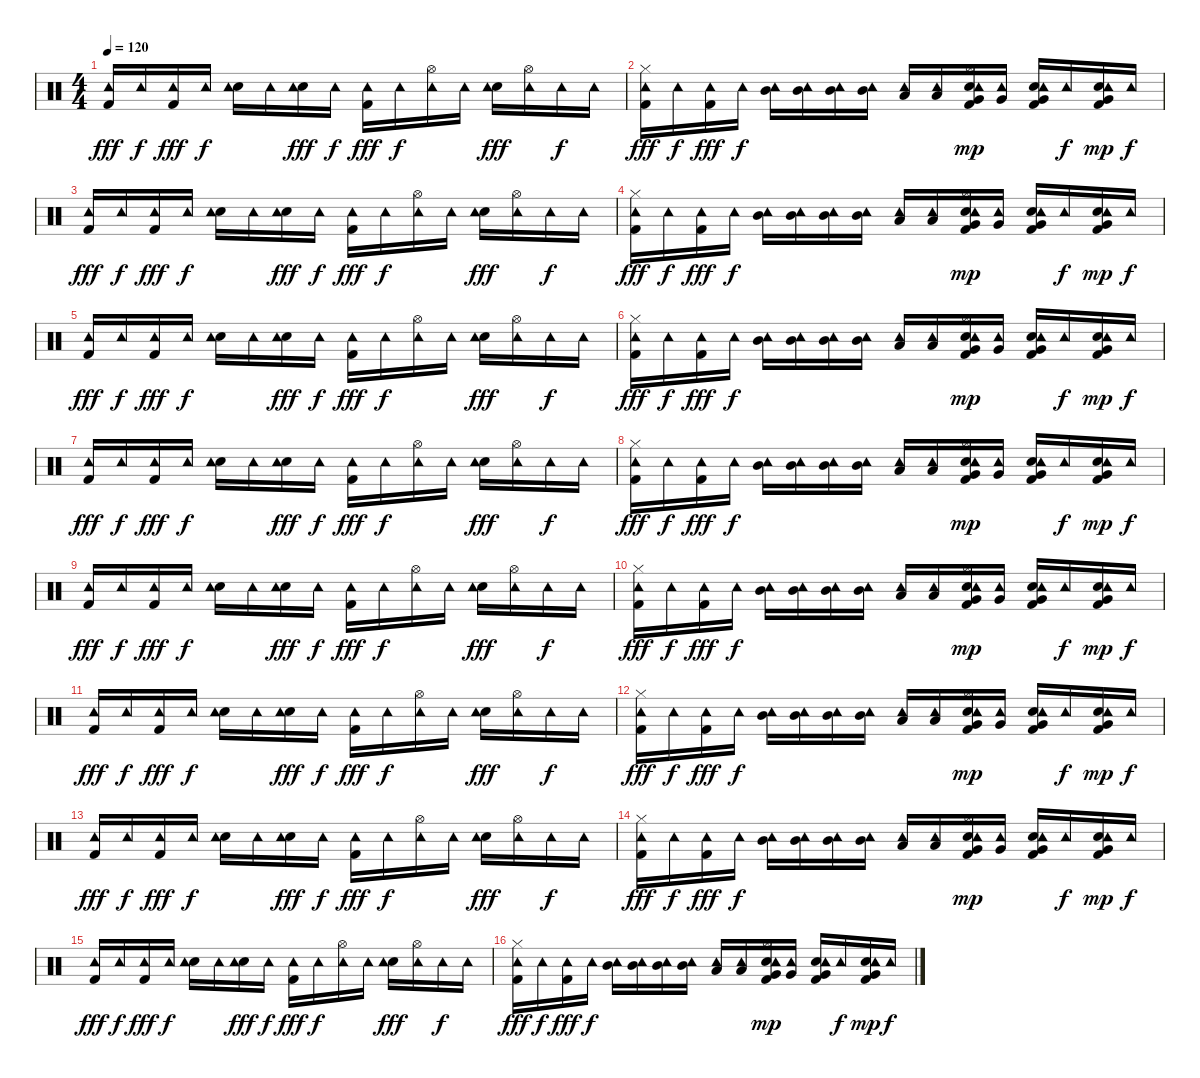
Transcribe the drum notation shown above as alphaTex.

\track "" {instrument percussion}
\staff {score}
\articulation defaults
\ts (4 4)
\tempo 120
\clef neutral
\ks c
("Tambourine (hit)" "Kick (hit) 2").16{dy fff} "Tambourine (hit)".16{dy f} ("Tambourine (hit)" "Kick (hit) 2").16{dy fff} "Tambourine (hit)".16{dy f} ("Hand Clap (hit)" "Tambourine (hit)").16 "Tambourine (hit)".16 ("Hand Clap (hit)" "Tambourine (hit)").16{dy fff} "Tambourine (hit)".16{dy f} ("Tambourine (hit)" "Kick (hit) 2").16{dy fff} "Tambourine (hit)".16{dy f} ("Hi-Hat (open)" "Tambourine (hit)").16 "Tambourine (hit)".16 ("Snare (hit) 2" "Tambourine (hit)").16{dy fff} ("Hi-Hat (open)" "Tambourine (hit)").16 "Tambourine (hit)".16{dy f} "Tambourine (hit)".16 |
("Hi-Hat (closed)" "Tambourine (hit)" "Kick (hit) 2").16{dy fff} "Tambourine (hit)".16{dy f} ("Tambourine (hit)" "Kick (hit) 2").16{dy fff} "Tambourine (hit)".16{dy f} ("Mid Tom (hit)" "Tambourine (hit)").16 ("Mid Tom (hit)" "Tambourine (hit)").16 ("Mid Tom (hit)" "Tambourine (hit)").16 ("Mid Tom (hit)" "Tambourine (hit)").16 ("Low Tom (hit)" "Tambourine (hit)").16 ("Low Tom (hit)" "Tambourine (hit)").16 ("Hi-Hat (open)" "Hand Clap (hit)" "Kick (hit) 2" "Very Low Tom (hit)" "Tambourine (hit)").16{dy mp} ("Very Low Tom (hit)" "Tambourine (hit)").16 ("Kick (hit) 2" "Very Low Tom (hit)" "Hand Clap (hit)" "Tambourine (hit)").16 "Tambourine (hit)".16{dy f} ("Kick (hit) 2" "Very Low Tom (hit)" "Hand Clap (hit)" "Tambourine (hit)").16{dy mp} "Tambourine (hit)".16{dy f} |
("Tambourine (hit)" "Kick (hit) 2").16{dy fff} "Tambourine (hit)".16{dy f} ("Tambourine (hit)" "Kick (hit) 2").16{dy fff} "Tambourine (hit)".16{dy f} ("Hand Clap (hit)" "Tambourine (hit)").16 "Tambourine (hit)".16 ("Hand Clap (hit)" "Tambourine (hit)").16{dy fff} "Tambourine (hit)".16{dy f} ("Tambourine (hit)" "Kick (hit) 2").16{dy fff} "Tambourine (hit)".16{dy f} ("Hi-Hat (open)" "Tambourine (hit)").16 "Tambourine (hit)".16 ("Snare (hit) 2" "Tambourine (hit)").16{dy fff} ("Hi-Hat (open)" "Tambourine (hit)").16 "Tambourine (hit)".16{dy f} "Tambourine (hit)".16 |
("Hi-Hat (closed)" "Tambourine (hit)" "Kick (hit) 2").16{dy fff} "Tambourine (hit)".16{dy f} ("Tambourine (hit)" "Kick (hit) 2").16{dy fff} "Tambourine (hit)".16{dy f} ("Mid Tom (hit)" "Tambourine (hit)").16 ("Mid Tom (hit)" "Tambourine (hit)").16 ("Mid Tom (hit)" "Tambourine (hit)").16 ("Mid Tom (hit)" "Tambourine (hit)").16 ("Low Tom (hit)" "Tambourine (hit)").16 ("Low Tom (hit)" "Tambourine (hit)").16 ("Hi-Hat (open)" "Hand Clap (hit)" "Kick (hit) 2" "Very Low Tom (hit)" "Tambourine (hit)").16{dy mp} ("Very Low Tom (hit)" "Tambourine (hit)").16 ("Kick (hit) 2" "Very Low Tom (hit)" "Hand Clap (hit)" "Tambourine (hit)").16 "Tambourine (hit)".16{dy f} ("Kick (hit) 2" "Very Low Tom (hit)" "Hand Clap (hit)" "Tambourine (hit)").16{dy mp} "Tambourine (hit)".16{dy f} |
("Tambourine (hit)" "Kick (hit) 2").16{dy fff} "Tambourine (hit)".16{dy f} ("Tambourine (hit)" "Kick (hit) 2").16{dy fff} "Tambourine (hit)".16{dy f} ("Hand Clap (hit)" "Tambourine (hit)").16 "Tambourine (hit)".16 ("Hand Clap (hit)" "Tambourine (hit)").16{dy fff} "Tambourine (hit)".16{dy f} ("Tambourine (hit)" "Kick (hit) 2").16{dy fff} "Tambourine (hit)".16{dy f} ("Hi-Hat (open)" "Tambourine (hit)").16 "Tambourine (hit)".16 ("Snare (hit) 2" "Tambourine (hit)").16{dy fff} ("Hi-Hat (open)" "Tambourine (hit)").16 "Tambourine (hit)".16{dy f} "Tambourine (hit)".16 |
("Hi-Hat (closed)" "Tambourine (hit)" "Kick (hit) 2").16{dy fff} "Tambourine (hit)".16{dy f} ("Tambourine (hit)" "Kick (hit) 2").16{dy fff} "Tambourine (hit)".16{dy f} ("Mid Tom (hit)" "Tambourine (hit)").16 ("Mid Tom (hit)" "Tambourine (hit)").16 ("Mid Tom (hit)" "Tambourine (hit)").16 ("Mid Tom (hit)" "Tambourine (hit)").16 ("Low Tom (hit)" "Tambourine (hit)").16 ("Low Tom (hit)" "Tambourine (hit)").16 ("Hi-Hat (open)" "Hand Clap (hit)" "Kick (hit) 2" "Very Low Tom (hit)" "Tambourine (hit)").16{dy mp} ("Very Low Tom (hit)" "Tambourine (hit)").16 ("Kick (hit) 2" "Very Low Tom (hit)" "Hand Clap (hit)" "Tambourine (hit)").16 "Tambourine (hit)".16{dy f} ("Kick (hit) 2" "Very Low Tom (hit)" "Hand Clap (hit)" "Tambourine (hit)").16{dy mp} "Tambourine (hit)".16{dy f} |
("Tambourine (hit)" "Kick (hit) 2").16{dy fff} "Tambourine (hit)".16{dy f} ("Tambourine (hit)" "Kick (hit) 2").16{dy fff} "Tambourine (hit)".16{dy f} ("Hand Clap (hit)" "Tambourine (hit)").16 "Tambourine (hit)".16 ("Hand Clap (hit)" "Tambourine (hit)").16{dy fff} "Tambourine (hit)".16{dy f} ("Tambourine (hit)" "Kick (hit) 2").16{dy fff} "Tambourine (hit)".16{dy f} ("Hi-Hat (open)" "Tambourine (hit)").16 "Tambourine (hit)".16 ("Snare (hit) 2" "Tambourine (hit)").16{dy fff} ("Hi-Hat (open)" "Tambourine (hit)").16 "Tambourine (hit)".16{dy f} "Tambourine (hit)".16 |
("Hi-Hat (closed)" "Tambourine (hit)" "Kick (hit) 2").16{dy fff} "Tambourine (hit)".16{dy f} ("Tambourine (hit)" "Kick (hit) 2").16{dy fff} "Tambourine (hit)".16{dy f} ("Mid Tom (hit)" "Tambourine (hit)").16 ("Mid Tom (hit)" "Tambourine (hit)").16 ("Mid Tom (hit)" "Tambourine (hit)").16 ("Mid Tom (hit)" "Tambourine (hit)").16 ("Low Tom (hit)" "Tambourine (hit)").16 ("Low Tom (hit)" "Tambourine (hit)").16 ("Hi-Hat (open)" "Hand Clap (hit)" "Kick (hit) 2" "Very Low Tom (hit)" "Tambourine (hit)").16{dy mp} ("Very Low Tom (hit)" "Tambourine (hit)").16 ("Kick (hit) 2" "Very Low Tom (hit)" "Hand Clap (hit)" "Tambourine (hit)").16 "Tambourine (hit)".16{dy f} ("Kick (hit) 2" "Very Low Tom (hit)" "Hand Clap (hit)" "Tambourine (hit)").16{dy mp} "Tambourine (hit)".16{dy f} |
("Tambourine (hit)" "Kick (hit) 2").16{dy fff} "Tambourine (hit)".16{dy f} ("Tambourine (hit)" "Kick (hit) 2").16{dy fff} "Tambourine (hit)".16{dy f} ("Hand Clap (hit)" "Tambourine (hit)").16 "Tambourine (hit)".16 ("Hand Clap (hit)" "Tambourine (hit)").16{dy fff} "Tambourine (hit)".16{dy f} ("Tambourine (hit)" "Kick (hit) 2").16{dy fff} "Tambourine (hit)".16{dy f} ("Hi-Hat (open)" "Tambourine (hit)").16 "Tambourine (hit)".16 ("Snare (hit) 2" "Tambourine (hit)").16{dy fff} ("Hi-Hat (open)" "Tambourine (hit)").16 "Tambourine (hit)".16{dy f} "Tambourine (hit)".16 |
("Hi-Hat (closed)" "Tambourine (hit)" "Kick (hit) 2").16{dy fff} "Tambourine (hit)".16{dy f} ("Tambourine (hit)" "Kick (hit) 2").16{dy fff} "Tambourine (hit)".16{dy f} ("Mid Tom (hit)" "Tambourine (hit)").16 ("Mid Tom (hit)" "Tambourine (hit)").16 ("Mid Tom (hit)" "Tambourine (hit)").16 ("Mid Tom (hit)" "Tambourine (hit)").16 ("Low Tom (hit)" "Tambourine (hit)").16 ("Low Tom (hit)" "Tambourine (hit)").16 ("Hi-Hat (open)" "Hand Clap (hit)" "Kick (hit) 2" "Very Low Tom (hit)" "Tambourine (hit)").16{dy mp} ("Very Low Tom (hit)" "Tambourine (hit)").16 ("Kick (hit) 2" "Very Low Tom (hit)" "Hand Clap (hit)" "Tambourine (hit)").16 "Tambourine (hit)".16{dy f} ("Kick (hit) 2" "Very Low Tom (hit)" "Hand Clap (hit)" "Tambourine (hit)").16{dy mp} "Tambourine (hit)".16{dy f} |
("Tambourine (hit)" "Kick (hit) 2").16{dy fff} "Tambourine (hit)".16{dy f} ("Tambourine (hit)" "Kick (hit) 2").16{dy fff} "Tambourine (hit)".16{dy f} ("Hand Clap (hit)" "Tambourine (hit)").16 "Tambourine (hit)".16 ("Hand Clap (hit)" "Tambourine (hit)").16{dy fff} "Tambourine (hit)".16{dy f} ("Tambourine (hit)" "Kick (hit) 2").16{dy fff} "Tambourine (hit)".16{dy f} ("Hi-Hat (open)" "Tambourine (hit)").16 "Tambourine (hit)".16 ("Snare (hit) 2" "Tambourine (hit)").16{dy fff} ("Hi-Hat (open)" "Tambourine (hit)").16 "Tambourine (hit)".16{dy f} "Tambourine (hit)".16 |
("Hi-Hat (closed)" "Tambourine (hit)" "Kick (hit) 2").16{dy fff} "Tambourine (hit)".16{dy f} ("Tambourine (hit)" "Kick (hit) 2").16{dy fff} "Tambourine (hit)".16{dy f} ("Mid Tom (hit)" "Tambourine (hit)").16 ("Mid Tom (hit)" "Tambourine (hit)").16 ("Mid Tom (hit)" "Tambourine (hit)").16 ("Mid Tom (hit)" "Tambourine (hit)").16 ("Low Tom (hit)" "Tambourine (hit)").16 ("Low Tom (hit)" "Tambourine (hit)").16 ("Hi-Hat (open)" "Hand Clap (hit)" "Kick (hit) 2" "Very Low Tom (hit)" "Tambourine (hit)").16{dy mp} ("Very Low Tom (hit)" "Tambourine (hit)").16 ("Kick (hit) 2" "Very Low Tom (hit)" "Hand Clap (hit)" "Tambourine (hit)").16 "Tambourine (hit)".16{dy f} ("Kick (hit) 2" "Very Low Tom (hit)" "Hand Clap (hit)" "Tambourine (hit)").16{dy mp} "Tambourine (hit)".16{dy f} |
("Tambourine (hit)" "Kick (hit) 2").16{dy fff} "Tambourine (hit)".16{dy f} ("Tambourine (hit)" "Kick (hit) 2").16{dy fff} "Tambourine (hit)".16{dy f} ("Hand Clap (hit)" "Tambourine (hit)").16 "Tambourine (hit)".16 ("Hand Clap (hit)" "Tambourine (hit)").16{dy fff} "Tambourine (hit)".16{dy f} ("Tambourine (hit)" "Kick (hit) 2").16{dy fff} "Tambourine (hit)".16{dy f} ("Hi-Hat (open)" "Tambourine (hit)").16 "Tambourine (hit)".16 ("Snare (hit) 2" "Tambourine (hit)").16{dy fff} ("Hi-Hat (open)" "Tambourine (hit)").16 "Tambourine (hit)".16{dy f} "Tambourine (hit)".16 |
("Hi-Hat (closed)" "Tambourine (hit)" "Kick (hit) 2").16{dy fff} "Tambourine (hit)".16{dy f} ("Tambourine (hit)" "Kick (hit) 2").16{dy fff} "Tambourine (hit)".16{dy f} ("Mid Tom (hit)" "Tambourine (hit)").16 ("Mid Tom (hit)" "Tambourine (hit)").16 ("Mid Tom (hit)" "Tambourine (hit)").16 ("Mid Tom (hit)" "Tambourine (hit)").16 ("Low Tom (hit)" "Tambourine (hit)").16 ("Low Tom (hit)" "Tambourine (hit)").16 ("Hi-Hat (open)" "Hand Clap (hit)" "Kick (hit) 2" "Very Low Tom (hit)" "Tambourine (hit)").16{dy mp} ("Very Low Tom (hit)" "Tambourine (hit)").16 ("Kick (hit) 2" "Very Low Tom (hit)" "Hand Clap (hit)" "Tambourine (hit)").16 "Tambourine (hit)".16{dy f} ("Kick (hit) 2" "Very Low Tom (hit)" "Hand Clap (hit)" "Tambourine (hit)").16{dy mp} "Tambourine (hit)".16{dy f} |
("Tambourine (hit)" "Kick (hit) 2").16{dy fff} "Tambourine (hit)".16{dy f} ("Tambourine (hit)" "Kick (hit) 2").16{dy fff} "Tambourine (hit)".16{dy f} ("Hand Clap (hit)" "Tambourine (hit)").16 "Tambourine (hit)".16 ("Hand Clap (hit)" "Tambourine (hit)").16{dy fff} "Tambourine (hit)".16{dy f} ("Tambourine (hit)" "Kick (hit) 2").16{dy fff} "Tambourine (hit)".16{dy f} ("Hi-Hat (open)" "Tambourine (hit)").16 "Tambourine (hit)".16 ("Snare (hit) 2" "Tambourine (hit)").16{dy fff} ("Hi-Hat (open)" "Tambourine (hit)").16 "Tambourine (hit)".16{dy f} "Tambourine (hit)".16 |
("Hi-Hat (closed)" "Tambourine (hit)" "Kick (hit) 2").16{dy fff} "Tambourine (hit)".16{dy f} ("Tambourine (hit)" "Kick (hit) 2").16{dy fff} "Tambourine (hit)".16{dy f} ("Mid Tom (hit)" "Tambourine (hit)").16 ("Mid Tom (hit)" "Tambourine (hit)").16 ("Mid Tom (hit)" "Tambourine (hit)").16 ("Mid Tom (hit)" "Tambourine (hit)").16 ("Low Tom (hit)" "Tambourine (hit)").16 ("Low Tom (hit)" "Tambourine (hit)").16 ("Hi-Hat (open)" "Hand Clap (hit)" "Kick (hit) 2" "Very Low Tom (hit)" "Tambourine (hit)").16{dy mp} ("Very Low Tom (hit)" "Tambourine (hit)").16 ("Kick (hit) 2" "Very Low Tom (hit)" "Hand Clap (hit)" "Tambourine (hit)").16 "Tambourine (hit)".16{dy f} ("Kick (hit) 2" "Very Low Tom (hit)" "Hand Clap (hit)" "Tambourine (hit)").16{dy mp} "Tambourine (hit)".16{dy f}
